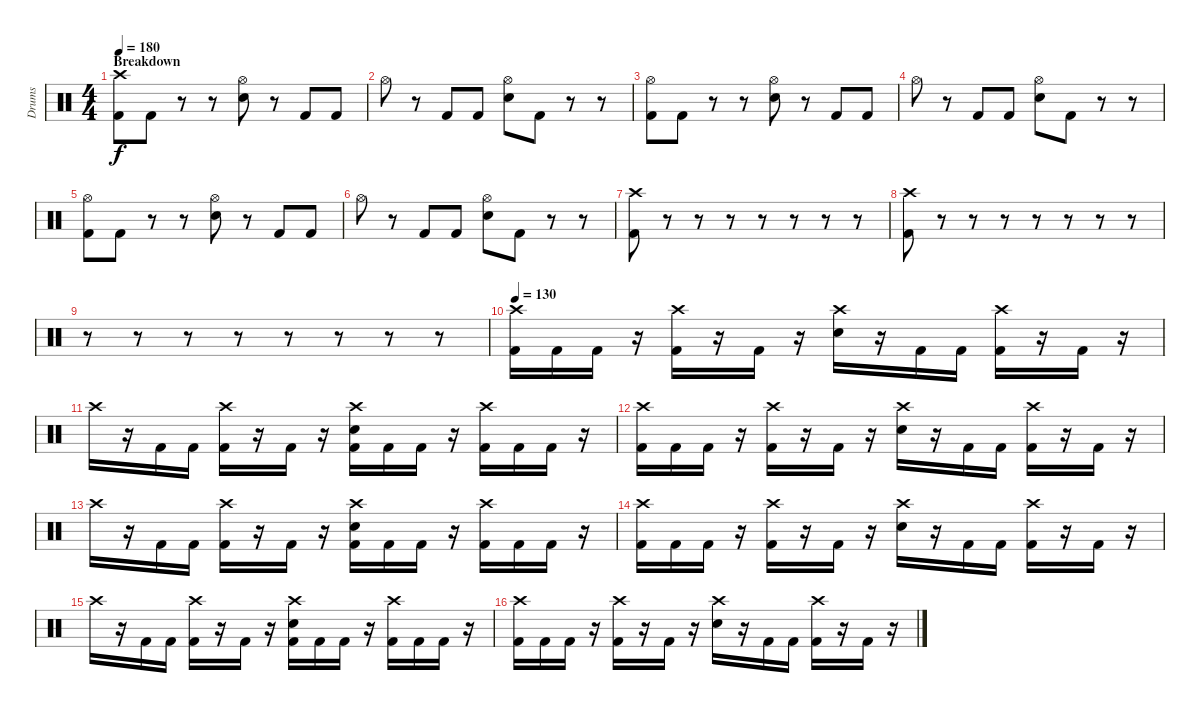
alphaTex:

\track ("Drums" "Drums") {instrument percussion}
\staff {score}
\articulation defaults
\ts (4 4)
\section ("" "Breakdown")
\tempo 180
\clef neutral
\ks c
("Crash high (hit)" "Kick (hit) 2").8{dy f} "Kick (hit) 2".8 r.8 r.8 ("Hi-Hat (open)" "Electric Snare (hit)").8 r.8 "Kick (hit) 2".8 "Kick (hit) 2".8 |
"Hi-Hat (open)".8 r.8 "Kick (hit) 2".8 "Kick (hit) 2".8 ("Hi-Hat (open)" "Electric Snare (hit)").8 "Kick (hit) 2".8 r.8 r.8 |
("Hi-Hat (open)" "Kick (hit) 2").8 "Kick (hit) 2".8 r.8 r.8 ("Hi-Hat (open)" "Electric Snare (hit)").8 r.8 "Kick (hit) 2".8 "Kick (hit) 2".8 |
"Hi-Hat (open)".8 r.8 "Kick (hit) 2".8 "Kick (hit) 2".8 ("Hi-Hat (open)" "Electric Snare (hit)").8 "Kick (hit) 2".8 r.8 r.8 |
("Hi-Hat (open)" "Kick (hit) 2").8 "Kick (hit) 2".8 r.8 r.8 ("Hi-Hat (open)" "Electric Snare (hit)").8 r.8 "Kick (hit) 2".8 "Kick (hit) 2".8 |
"Hi-Hat (open)".8 r.8 "Kick (hit) 2".8 "Kick (hit) 2".8 ("Hi-Hat (open)" "Electric Snare (hit)").8 "Kick (hit) 2".8 r.8 r.8 |
("Crash high (hit)" "Kick (hit) 2").8 r.8 r.8 r.8 r.8 r.8 r.8 r.8 |
("Crash high (hit)" "Kick (hit) 2").8 r.8 r.8 r.8 r.8 r.8 r.8 r.8 |
r.8 r.8 r.8 r.8 r.8 r.8 r.8 r.8 |
\tempo 130
("Crash high (hit)" "Kick (hit) 2").16 "Kick (hit) 2".16 "Kick (hit) 2".16 r.16 ("Crash high (hit)" "Kick (hit) 2").16 r.16 "Kick (hit) 2".16 r.16 ("Crash high (hit)" "Electric Snare (hit)").16 r.16 "Kick (hit) 2".16 "Kick (hit) 2".16 ("Crash high (hit)" "Kick (hit) 2").16 r.16 "Kick (hit) 2".16 r.16 |
"Crash high (hit)".16 r.16 "Kick (hit) 2".16 "Kick (hit) 2".16 ("Crash high (hit)" "Kick (hit) 2").16 r.16 "Kick (hit) 2".16 r.16 ("Crash high (hit)" "Electric Snare (hit)" "Kick (hit) 2").16 "Kick (hit) 2".16 "Kick (hit) 2".16 r.16 ("Crash high (hit)" "Kick (hit) 2").16 "Kick (hit) 2".16 "Kick (hit) 2".16 r.16 |
("Crash high (hit)" "Kick (hit) 2").16 "Kick (hit) 2".16 "Kick (hit) 2".16 r.16 ("Crash high (hit)" "Kick (hit) 2").16 r.16 "Kick (hit) 2".16 r.16 ("Crash high (hit)" "Electric Snare (hit)").16 r.16 "Kick (hit) 2".16 "Kick (hit) 2".16 ("Crash high (hit)" "Kick (hit) 2").16 r.16 "Kick (hit) 2".16 r.16 |
"Crash high (hit)".16 r.16 "Kick (hit) 2".16 "Kick (hit) 2".16 ("Crash high (hit)" "Kick (hit) 2").16 r.16 "Kick (hit) 2".16 r.16 ("Crash high (hit)" "Electric Snare (hit)" "Kick (hit) 2").16 "Kick (hit) 2".16 "Kick (hit) 2".16 r.16 ("Crash high (hit)" "Kick (hit) 2").16 "Kick (hit) 2".16 "Kick (hit) 2".16 r.16 |
("Crash high (hit)" "Kick (hit) 2").16 "Kick (hit) 2".16 "Kick (hit) 2".16 r.16 ("Crash high (hit)" "Kick (hit) 2").16 r.16 "Kick (hit) 2".16 r.16 ("Crash high (hit)" "Electric Snare (hit)").16 r.16 "Kick (hit) 2".16 "Kick (hit) 2".16 ("Crash high (hit)" "Kick (hit) 2").16 r.16 "Kick (hit) 2".16 r.16 |
"Crash high (hit)".16 r.16 "Kick (hit) 2".16 "Kick (hit) 2".16 ("Crash high (hit)" "Kick (hit) 2").16 r.16 "Kick (hit) 2".16 r.16 ("Crash high (hit)" "Electric Snare (hit)" "Kick (hit) 2").16 "Kick (hit) 2".16 "Kick (hit) 2".16 r.16 ("Crash high (hit)" "Kick (hit) 2").16 "Kick (hit) 2".16 "Kick (hit) 2".16 r.16 |
("Crash high (hit)" "Kick (hit) 2").16 "Kick (hit) 2".16 "Kick (hit) 2".16 r.16 ("Crash high (hit)" "Kick (hit) 2").16 r.16 "Kick (hit) 2".16 r.16 ("Crash high (hit)" "Electric Snare (hit)").16 r.16 "Kick (hit) 2".16 "Kick (hit) 2".16 ("Crash high (hit)" "Kick (hit) 2").16 r.16 "Kick (hit) 2".16 r.16
